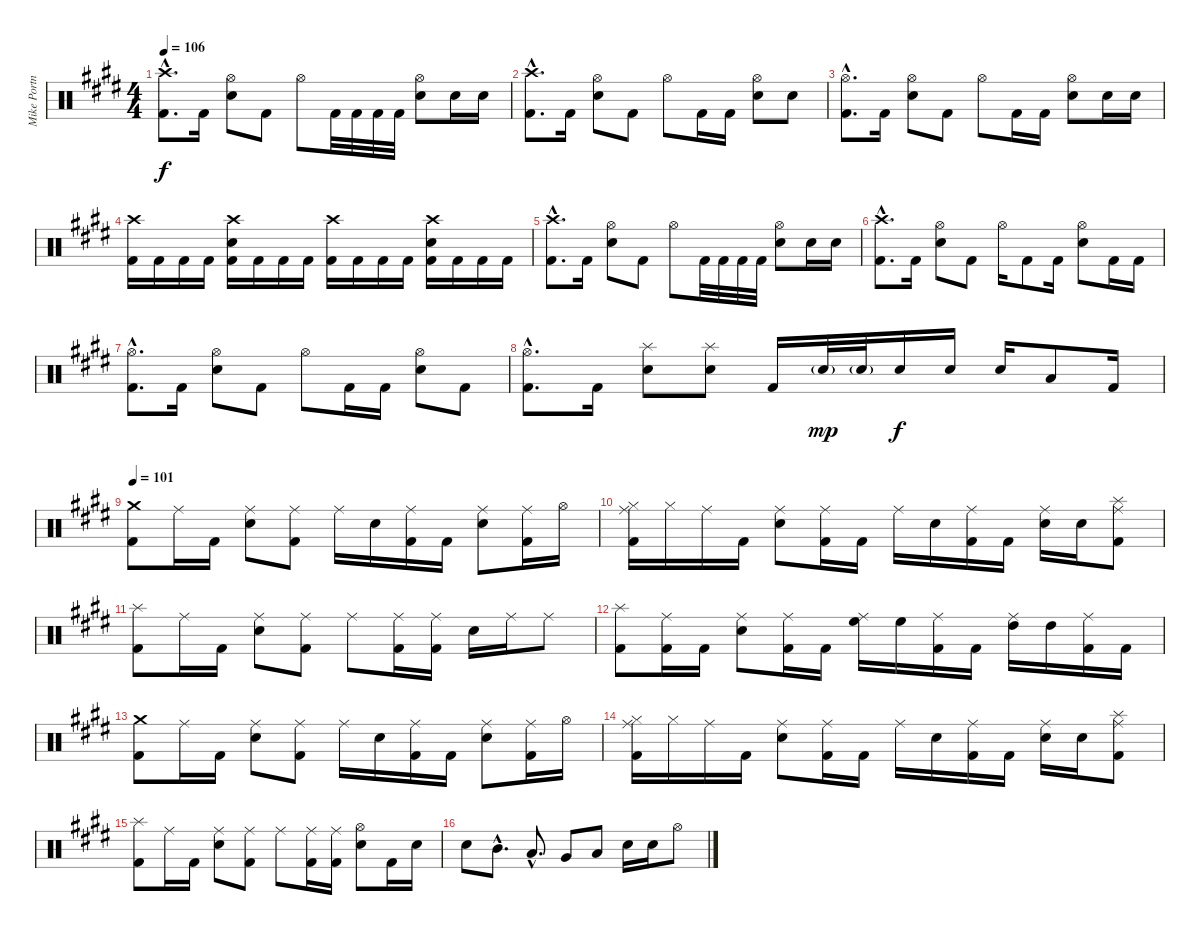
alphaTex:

\track ("Mike Portnoy" "Mike Portn") {instrument percussion}
\staff {score}
\articulation defaults
\ts (4 4)
\tempo 106
\clef neutral
\ks e
("Crash high (hit)"{hac} "Kick (hit) 2"{hac}).8{d dy f} "Kick (hit) 2".16 ("Hi-Hat (open)" "Snare (hit) 2").8 "Kick (hit) 2".8 "Hi-Hat (open)".8 "Kick (hit) 2".32 "Kick (hit) 2".32 "Kick (hit) 2".32 "Kick (hit) 2".32 ("Hi-Hat (open)" "Snare (hit) 2").8 "Snare (hit) 2".16 "Snare (hit) 2".16 |
("Crash high (hit)"{hac} "Kick (hit) 2"{hac}).8{d} "Kick (hit) 2".16 ("Hi-Hat (open)" "Snare (hit) 2").8 "Kick (hit) 2".8 "Hi-Hat (open)".8 "Kick (hit) 2".16 "Kick (hit) 2".16 ("Hi-Hat (open)" "Snare (hit) 2").8 "Snare (hit) 2".8 |
("Hi-Hat (open)"{hac} "Kick (hit) 2"{hac}).8{d} "Kick (hit) 2".16 ("Hi-Hat (open)" "Snare (hit) 2").8 "Kick (hit) 2".8 "Hi-Hat (open)".8 "Kick (hit) 2".16 "Kick (hit) 2".16 ("Hi-Hat (open)" "Snare (hit) 2").8 "Snare (hit) 2".16 "Snare (hit) 2".16 |
("Crash high (hit)" "Kick (hit) 2").16 "Kick (hit) 2".16 "Kick (hit) 2".16 "Kick (hit) 2".16 ("Crash high (hit)" "Snare (hit) 2" "Kick (hit) 2").16 "Kick (hit) 2".16 "Kick (hit) 2".16 "Kick (hit) 2".16 ("Crash high (hit)" "Kick (hit) 2").16 "Kick (hit) 2".16 "Kick (hit) 2".16 "Kick (hit) 2".16 ("Crash high (hit)" "Snare (hit) 2" "Kick (hit) 2").16 "Kick (hit) 2".16 "Kick (hit) 2".16 "Kick (hit) 2".16 |
("Crash high (hit)"{hac} "Kick (hit) 2"{hac}).8{d} "Kick (hit) 2".16 ("Hi-Hat (open)" "Snare (hit) 2").8 "Kick (hit) 2".8 "Hi-Hat (open)".8 "Kick (hit) 2".32 "Kick (hit) 2".32 "Kick (hit) 2".32 "Kick (hit) 2".32 ("Hi-Hat (open)" "Snare (hit) 2").8 "Snare (hit) 2".16 "Snare (hit) 2".16 |
("Crash high (hit)"{hac} "Kick (hit) 2"{hac}).8{d} "Kick (hit) 2".16 ("Hi-Hat (open)" "Snare (hit) 2").8 "Kick (hit) 2".8 "Hi-Hat (open)".16 "Kick (hit) 2".8 "Kick (hit) 2".16 ("Hi-Hat (open)" "Snare (hit) 2").8 "Kick (hit) 2".16 "Kick (hit) 2".16 |
("Hi-Hat (open)"{hac} "Kick (hit) 2"{hac}).8{d} "Kick (hit) 2".16 ("Hi-Hat (open)" "Snare (hit) 2").8 "Kick (hit) 2".8 "Hi-Hat (open)".8 "Kick (hit) 2".16 "Kick (hit) 2".16 ("Hi-Hat (open)" "Snare (hit) 2").8 "Kick (hit) 2".8 |
("Hi-Hat (open)"{hac} "Kick (hit) 2"{hac}).8{d} "Kick (hit) 2".16 ("Splash (hit)" "Snare (hit) 2").8 ("Splash (hit)" "Snare (hit) 2").8 "Kick (hit) 2".16 "Snare (hit) 2"{g}.32{dy mp} "Snare (hit) 2"{g}.32 "Snare (hit) 2".16{dy f} "Snare (hit) 2".16 "Snare (hit) 2".16 "Low Tom (hit)".8 "Kick (hit) 2".16 |
\tempo 101
("Crash medium (hit)" "Kick (hit) 2").8 "Ride (middle)".16 "Kick (hit) 2".16 ("Ride (middle)" "Snare (hit) 2").8 ("Ride (middle)" "Kick (hit) 2").8 "Ride (middle)".16 "Snare (hit) 2".16 ("Ride (middle)" "Kick (hit) 2").16 "Kick (hit) 2".16 ("Ride (middle)" "Snare (hit) 2").8 ("Ride (middle)" "Kick (hit) 2").16 "Hi-Hat (open)".16 |
("Hi-Hat (closed)" "Ride (middle)" "Kick (hit) 2").16 "Hi-Hat (closed)".16 "Ride (middle)".16 "Kick (hit) 2".16 ("Ride (middle)" "Snare (hit) 2").8 ("Ride (middle)" "Kick (hit) 2").16 "Kick (hit) 2".16 "Ride (middle)".16 "Snare (hit) 2".16 ("Ride (middle)" "Kick (hit) 2").16 "Kick (hit) 2".16 ("Ride (middle)" "Snare (hit) 2").16 "Snare (hit) 2".16 ("Splash (hit)" "Ride (middle)" "Kick (hit) 2").8 |
("Splash (hit)" "Kick (hit) 2").8 "Ride (middle)".16 "Kick (hit) 2".16 ("Ride (middle)" "Snare (hit) 2").8 ("Ride (middle)" "Kick (hit) 2").8 "Ride (middle)".8 ("Ride (middle)" "Kick (hit) 2").16 ("Ride (middle)" "Kick (hit) 2").16 "Snare (hit) 2".16 "Ride (middle)".16 "Ride (middle)".8 |
("Splash (hit)" "Kick (hit) 2").8 ("Ride (middle)" "Kick (hit) 2").16 "Kick (hit) 2".16 ("Ride (middle)" "Snare (hit) 2").8 ("Ride (middle)" "Kick (hit) 2").16 "Kick (hit) 2".16 ("Ride (middle)" "High Floor Tom (hit)").16 "High Floor Tom (hit)".16 ("Ride (middle)" "Kick (hit) 2").16 "Kick (hit) 2".16 ("Ride (middle)" "High Tom (hit)").16 "High Tom (hit)".16 ("Ride (middle)" "Kick (hit) 2").16 "Kick (hit) 2".16 |
("Crash medium (hit)" "Kick (hit) 2").8 "Ride (middle)".16 "Kick (hit) 2".16 ("Ride (middle)" "Snare (hit) 2").8 ("Ride (middle)" "Kick (hit) 2").8 "Ride (middle)".16 "Snare (hit) 2".16 ("Ride (middle)" "Kick (hit) 2").16 "Kick (hit) 2".16 ("Ride (middle)" "Snare (hit) 2").8 ("Ride (middle)" "Kick (hit) 2").16 "Hi-Hat (open)".16 |
("Hi-Hat (closed)" "Ride (middle)" "Kick (hit) 2").16 "Hi-Hat (closed)".16 "Ride (middle)".16 "Kick (hit) 2".16 ("Ride (middle)" "Snare (hit) 2").8 ("Ride (middle)" "Kick (hit) 2").16 "Kick (hit) 2".16 "Ride (middle)".16 "Snare (hit) 2".16 ("Ride (middle)" "Kick (hit) 2").16 "Kick (hit) 2".16 ("Ride (middle)" "Snare (hit) 2").16 "Snare (hit) 2".16 ("Splash (hit)" "Ride (middle)" "Kick (hit) 2").8 |
("Splash (hit)" "Kick (hit) 2").8 "Ride (middle)".16 "Kick (hit) 2".16 ("Ride (middle)" "Snare (hit) 2").8 ("Ride (middle)" "Kick (hit) 2").8 "Ride (middle)".8 ("Ride (middle)" "Kick (hit) 2").16 ("Ride (middle)" "Kick (hit) 2").16 ("Hi-Hat (open)" "Snare (hit) 2").8 "Kick (hit) 2".16 "Snare (hit) 2".16 |
"Snare (hit) 2".8 "Mid Tom (hit)"{hac}.8{d} "Low Tom (hit)"{hac}.8{d} "Very Low Tom (hit)".8 "Low Floor Tom (hit)".8 "Snare (hit) 2".16 "Snare (hit) 2".16 "Hi-Hat (open)".8
